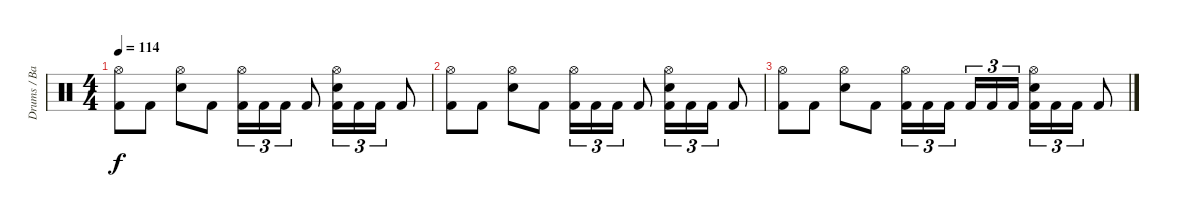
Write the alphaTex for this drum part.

\track ("Drums / Bateria" "Drums / Ba") {instrument percussion}
\staff {score}
\articulation defaults
\ts (4 4)
\tempo 114
\clef neutral
\ks c
("Hi-Hat (open)" "Kick (hit) 2").8{dy f} "Kick (hit) 2".8 ("Hi-Hat (open)" "Snare (hit) 2").8 "Kick (hit) 2".8 ("Hi-Hat (open)" "Kick (hit) 2").16{tu (3 2)} "Kick (hit) 2".16{tu (3 2)} "Kick (hit) 2".16{tu (3 2)} "Kick (hit) 2".8 ("Hi-Hat (open)" "Snare (hit) 2" "Kick (hit) 2").16{tu (3 2)} "Kick (hit) 2".16{tu (3 2)} "Kick (hit) 2".16{tu (3 2)} "Kick (hit) 2".8 |
("Hi-Hat (open)" "Kick (hit) 2").8 "Kick (hit) 2".8 ("Hi-Hat (open)" "Snare (hit) 2").8 "Kick (hit) 2".8 ("Hi-Hat (open)" "Kick (hit) 2").16{tu (3 2)} "Kick (hit) 2".16{tu (3 2)} "Kick (hit) 2".16{tu (3 2)} "Kick (hit) 2".8 ("Hi-Hat (open)" "Snare (hit) 2" "Kick (hit) 2").16{tu (3 2)} "Kick (hit) 2".16{tu (3 2)} "Kick (hit) 2".16{tu (3 2)} "Kick (hit) 2".8 |
("Hi-Hat (open)" "Kick (hit) 2").8 "Kick (hit) 2".8 ("Hi-Hat (open)" "Snare (hit) 2").8 "Kick (hit) 2".8 ("Hi-Hat (open)" "Kick (hit) 2").16{tu (3 2)} "Kick (hit) 2".16{tu (3 2)} "Kick (hit) 2".16{tu (3 2) beam splitsecondary} "Kick (hit) 2".16{tu (3 2)} "Kick (hit) 2".16{tu (3 2)} "Kick (hit) 2".16{tu (3 2)} ("Hi-Hat (open)" "Snare (hit) 2" "Kick (hit) 2").16{tu (3 2)} "Kick (hit) 2".16{tu (3 2)} "Kick (hit) 2".16{tu (3 2)} "Kick (hit) 2".8
